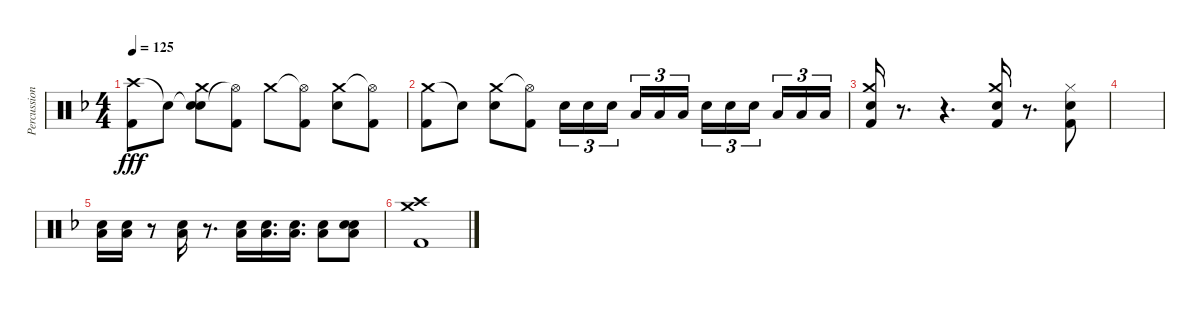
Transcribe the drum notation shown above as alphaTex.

\track ("Percussion" "Percussion") {instrument percussion}
\staff {score}
\articulation defaults
\ts (4 4)
\tempo 125
\clef neutral
\ks dminor
("Crash high (hit)" "Kick (hit) 2").8{dy fff} "Snare (hit)"{t}.8 ("Snare (hit)"{t} "Crash medium (hit)" "Electric Snare (hit)").8 ("Hi-Hat (open)"{t} "Kick (hit) 2").8 "Crash medium (hit)".8 ("Hi-Hat (open)"{t} "Kick (hit) 2").8 ("Crash medium (hit)" "Electric Snare (hit)").8 ("Hi-Hat (open)"{t} "Kick (hit) 2").8 |
("Crash medium (hit)" "Kick (hit) 2").8 "Snare (hit)"{t}.8 ("Crash medium (hit)" "Electric Snare (hit)").8 ("Hi-Hat (open)"{t} "Kick (hit) 2").8 "Electric Snare (hit)".16{tu (3 2)} "Electric Snare (hit)".16{tu (3 2)} "Electric Snare (hit)".16{tu (3 2) beam splitsecondary} "Low Tom (hit)".16{tu (3 2)} "Low Tom (hit)".16{tu (3 2)} "Low Tom (hit)".16{tu (3 2)} "Electric Snare (hit)".16{tu (3 2)} "Electric Snare (hit)".16{tu (3 2)} "Electric Snare (hit)".16{tu (3 2) beam splitsecondary} "Low Floor Tom (hit)".16{tu (3 2)} "Low Floor Tom (hit)".16{tu (3 2)} "Low Floor Tom (hit)".16{tu (3 2)} |
("Crash medium (hit)" "Electric Snare (hit)" "Kick (hit) 2").16 r.8{d volume 0} r.4{d} ("Crash medium (hit)" "Electric Snare (hit)" "Kick (hit) 2").16{volume 16} r.8{d volume 0} ("Hi-Hat (closed)" "Electric Snare (hit)" "Kick (hit) 2").8{volume 16} |
|
("Electric Snare (hit)" "Low Floor Tom (hit)").16 ("Electric Snare (hit)" "Low Floor Tom (hit)").16 r.8 ("Electric Snare (hit)" "Low Floor Tom (hit)").16 r.8{d} ("Electric Snare (hit)" "Low Floor Tom (hit)").16 ("Electric Snare (hit)" "Low Floor Tom (hit)").16{d} ("Electric Snare (hit)" "Low Floor Tom (hit)").16{d} ("Electric Snare (hit)" "Low Floor Tom (hit)").8 ("Electric Snare (hit)" "Electric Snare (hit)" "Low Floor Tom (hit)").8 |
("Crash medium (hit)" "Crash high (hit)" "Kick (hit) 2").1
